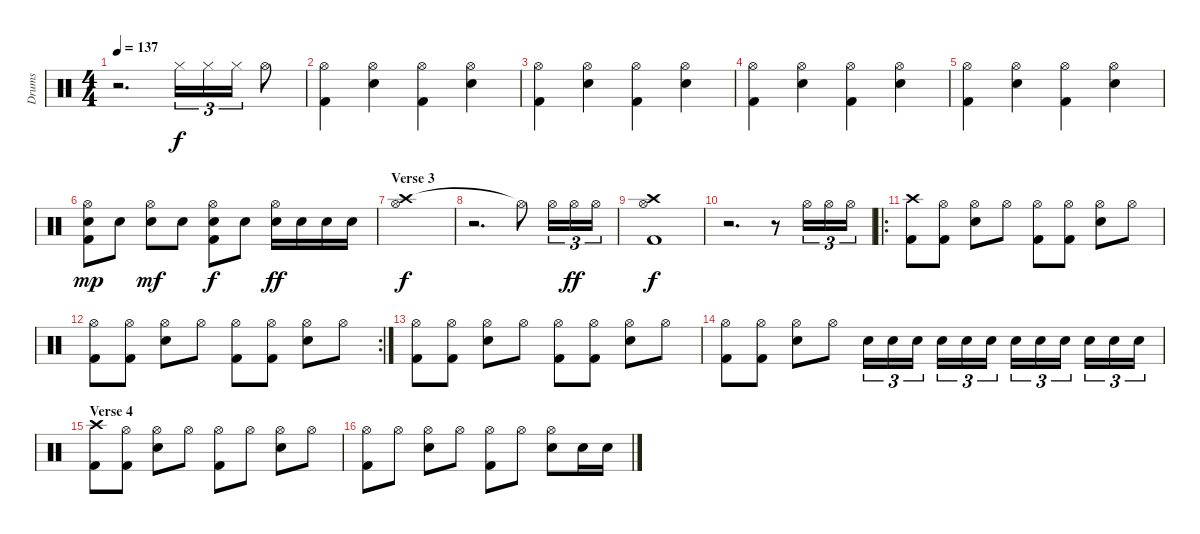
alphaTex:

\track ("Drums" "Drums") {instrument percussion}
\staff {score}
\articulation defaults
\ts (4 4)
\tempo 137
\clef neutral
\ks c
r.2{d dy f} "Hi-Hat (closed)".16{tu (3 2)} "Hi-Hat (closed)".16{tu (3 2)} "Hi-Hat (closed)".16{tu (3 2)} "Hi-Hat (open)".8 |
("Hi-Hat (open)" "Kick (hit) 2").4 ("Hi-Hat (open)" "Electric Snare (hit)").4 ("Hi-Hat (open)" "Kick (hit) 2").4 ("Hi-Hat (open)" "Electric Snare (hit)").4 |
("Hi-Hat (open)" "Kick (hit) 2").4 ("Hi-Hat (open)" "Electric Snare (hit)").4 ("Hi-Hat (open)" "Kick (hit) 2").4 ("Hi-Hat (open)" "Electric Snare (hit)").4 |
("Hi-Hat (open)" "Kick (hit) 2").4 ("Hi-Hat (open)" "Electric Snare (hit)").4 ("Hi-Hat (open)" "Kick (hit) 2").4 ("Hi-Hat (open)" "Electric Snare (hit)").4 |
("Hi-Hat (open)" "Kick (hit) 2").4 ("Hi-Hat (open)" "Electric Snare (hit)").4 ("Hi-Hat (open)" "Kick (hit) 2").4 ("Hi-Hat (open)" "Electric Snare (hit)").4 |
("Hi-Hat (open)" "Electric Snare (hit)" "Kick (hit) 2").8{dy mp} "Electric Snare (hit)".8 ("Hi-Hat (open)" "Electric Snare (hit)").8{dy mf} "Electric Snare (hit)".8 ("Hi-Hat (open)" "Electric Snare (hit)" "Kick (hit) 2").8{dy f} "Electric Snare (hit)".8 ("Hi-Hat (open)" "Electric Snare (hit)").16{dy ff} "Electric Snare (hit)".16 "Electric Snare (hit)".16 "Electric Snare (hit)".16 |
\section ("" "Verse 3")
("Crash high (hit)" "Hi-Hat (open)").1{dy f} |
r.2{d} "Hi-Hat (open)"{t}.8 "Hi-Hat (open)".16{tu (3 2)} "Hi-Hat (open)".16{tu (3 2) dy ff} "Hi-Hat (open)".16{tu (3 2)} |
("Hi-Hat (open)" "Crash high (hit)" "Kick (hit) 2").1{dy f} |
r.2{d} r.8 "Hi-Hat (open)".16{tu (3 2)} "Hi-Hat (open)".16{tu (3 2)} "Hi-Hat (open)".16{tu (3 2)} |
\ro
("Crash high (hit)" "Kick (hit) 2").8 ("Hi-Hat (open)" "Kick (hit) 2").8 ("Hi-Hat (open)" "Electric Snare (hit)").8 "Hi-Hat (open)".8 ("Hi-Hat (open)" "Kick (hit) 2").8 ("Hi-Hat (open)" "Kick (hit) 2").8 ("Hi-Hat (open)" "Electric Snare (hit)").8 "Hi-Hat (open)".8 |
\rc 2
("Hi-Hat (open)" "Kick (hit) 2").8 ("Hi-Hat (open)" "Kick (hit) 2").8 ("Hi-Hat (open)" "Electric Snare (hit)").8 "Hi-Hat (open)".8 ("Hi-Hat (open)" "Kick (hit) 2").8 ("Hi-Hat (open)" "Kick (hit) 2").8 ("Hi-Hat (open)" "Electric Snare (hit)").8 "Hi-Hat (open)".8 |
("Hi-Hat (open)" "Kick (hit) 2").8 ("Hi-Hat (open)" "Kick (hit) 2").8 ("Hi-Hat (open)" "Electric Snare (hit)").8 "Hi-Hat (open)".8 ("Hi-Hat (open)" "Kick (hit) 2").8 ("Hi-Hat (open)" "Kick (hit) 2").8 ("Hi-Hat (open)" "Electric Snare (hit)").8 "Hi-Hat (open)".8 |
("Hi-Hat (open)" "Kick (hit) 2").8 ("Hi-Hat (open)" "Kick (hit) 2").8 ("Hi-Hat (open)" "Electric Snare (hit)").8 "Hi-Hat (open)".8 "Electric Snare (hit)".16{tu (3 2)} "Electric Snare (hit)".16{tu (3 2)} "Electric Snare (hit)".16{tu (3 2)} "Electric Snare (hit)".16{tu (3 2)} "Electric Snare (hit)".16{tu (3 2)} "Electric Snare (hit)".16{tu (3 2)} "Electric Snare (hit)".16{tu (3 2)} "Electric Snare (hit)".16{tu (3 2)} "Electric Snare (hit)".16{tu (3 2)} "Electric Snare (hit)".16{tu (3 2)} "Electric Snare (hit)".16{tu (3 2)} "Electric Snare (hit)".16{tu (3 2)} |
\section ("" "Verse 4")
("Crash high (hit)" "Kick (hit) 2").8 ("Hi-Hat (open)" "Kick (hit) 2").8 ("Hi-Hat (open)" "Electric Snare (hit)").8 "Hi-Hat (open)".8 ("Hi-Hat (open)" "Kick (hit) 2").8 "Hi-Hat (open)".8 ("Hi-Hat (open)" "Electric Snare (hit)").8 "Hi-Hat (open)".8 |
("Hi-Hat (open)" "Kick (hit) 2").8 "Hi-Hat (open)".8 ("Hi-Hat (open)" "Electric Snare (hit)").8 "Hi-Hat (open)".8 ("Hi-Hat (open)" "Kick (hit) 2").8 "Hi-Hat (open)".8 ("Hi-Hat (open)" "Electric Snare (hit)").8 "Electric Snare (hit)".16 "Electric Snare (hit)".16
